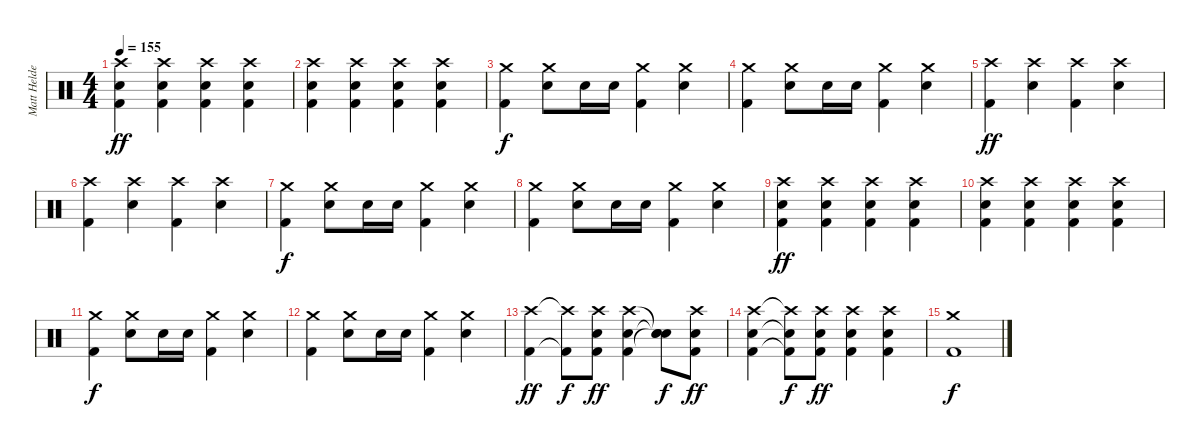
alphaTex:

\track ("Matt Helders" "Matt Helde") {instrument percussion}
\staff {score}
\articulation defaults
\ts (4 4)
\tempo 155
\clef neutral
\ks c
("Crash high (hit)" "Snare (hit) 2" "Kick (hit) 2").4{dy ff} ("Crash high (hit)" "Snare (hit) 2" "Kick (hit) 2").4 ("Crash high (hit)" "Snare (hit) 2" "Kick (hit) 2").4 ("Crash high (hit)" "Snare (hit) 2" "Kick (hit) 2").4 |
("Crash high (hit)" "Snare (hit) 2" "Kick (hit) 2").4 ("Crash high (hit)" "Snare (hit) 2" "Kick (hit) 2").4 ("Crash high (hit)" "Snare (hit) 2" "Kick (hit) 2").4 ("Crash high (hit)" "Snare (hit) 2" "Kick (hit) 2").4 |
("Crash medium (hit)" "Kick (hit) 2").4{dy f} ("Crash medium (hit)" "Snare (hit) 2").8 "Snare (hit) 2".16 "Snare (hit) 2".16 ("Crash medium (hit)" "Kick (hit) 2").4 ("Crash medium (hit)" "Snare (hit) 2").4 |
("Crash medium (hit)" "Kick (hit) 2").4 ("Crash medium (hit)" "Snare (hit) 2").8 "Snare (hit) 2".16 "Snare (hit) 2".16 ("Crash medium (hit)" "Kick (hit) 2").4 ("Crash medium (hit)" "Snare (hit) 2").4 |
("Crash high (hit)" "Kick (hit) 2").4{dy ff} ("Crash high (hit)" "Snare (hit) 2").4 ("Crash high (hit)" "Kick (hit) 2").4 ("Crash high (hit)" "Snare (hit) 2").4 |
("Crash high (hit)" "Kick (hit) 2").4 ("Crash high (hit)" "Snare (hit) 2").4 ("Crash high (hit)" "Kick (hit) 2").4 ("Crash high (hit)" "Snare (hit) 2").4 |
("Crash medium (hit)" "Kick (hit) 2").4{dy f} ("Crash medium (hit)" "Snare (hit) 2").8 "Snare (hit) 2".16 "Snare (hit) 2".16 ("Crash medium (hit)" "Kick (hit) 2").4 ("Crash medium (hit)" "Snare (hit) 2").4 |
("Crash medium (hit)" "Kick (hit) 2").4 ("Crash medium (hit)" "Snare (hit) 2").8 "Snare (hit) 2".16 "Snare (hit) 2".16 ("Crash medium (hit)" "Kick (hit) 2").4 ("Crash medium (hit)" "Snare (hit) 2").4 |
("Crash high (hit)" "Snare (hit) 2" "Kick (hit) 2").4{dy ff} ("Crash high (hit)" "Snare (hit) 2" "Kick (hit) 2").4 ("Crash high (hit)" "Snare (hit) 2" "Kick (hit) 2").4 ("Crash high (hit)" "Snare (hit) 2" "Kick (hit) 2").4 |
("Crash high (hit)" "Snare (hit) 2" "Kick (hit) 2").4 ("Crash high (hit)" "Snare (hit) 2" "Kick (hit) 2").4 ("Crash high (hit)" "Snare (hit) 2" "Kick (hit) 2").4 ("Crash high (hit)" "Snare (hit) 2" "Kick (hit) 2").4 |
("Crash medium (hit)" "Kick (hit) 2").4{dy f} ("Crash medium (hit)" "Snare (hit) 2").8 "Snare (hit) 2".16 "Snare (hit) 2".16 ("Crash medium (hit)" "Kick (hit) 2").4 ("Crash medium (hit)" "Snare (hit) 2").4 |
("Crash medium (hit)" "Kick (hit) 2").4 ("Crash medium (hit)" "Snare (hit) 2").8 "Snare (hit) 2".16 "Snare (hit) 2".16 ("Crash medium (hit)" "Kick (hit) 2").4 ("Crash medium (hit)" "Snare (hit) 2").4 |
("Crash high (hit)" "Kick (hit) 2").4{dy ff} ("Crash high (hit)"{t} "Kick (hit) 2"{t}).8{dy f} ("Crash high (hit)" "Snare (hit) 2" "Kick (hit) 2").8{dy ff} ("Crash high (hit)" "Snare (hit) 2" "Kick (hit) 2").4 ("Snare (hit)"{t} "Snare (hit)"{t} "Snare (hit)"{t}).8{dy f} ("Crash high (hit)" "Snare (hit) 2" "Kick (hit) 2").8{dy ff} |
("Crash high (hit)" "Snare (hit) 2" "Kick (hit) 2").4 ("Crash high (hit)"{t} "Snare (hit) 2"{t} "Kick (hit) 2"{t}).8{dy f} ("Crash high (hit)" "Snare (hit) 2" "Kick (hit) 2").8{dy ff} ("Crash high (hit)" "Snare (hit) 2" "Kick (hit) 2").4 ("Crash high (hit)" "Snare (hit) 2" "Kick (hit) 2").4 |
("Crash medium (hit)" "Kick (hit) 2").1{dy f}
